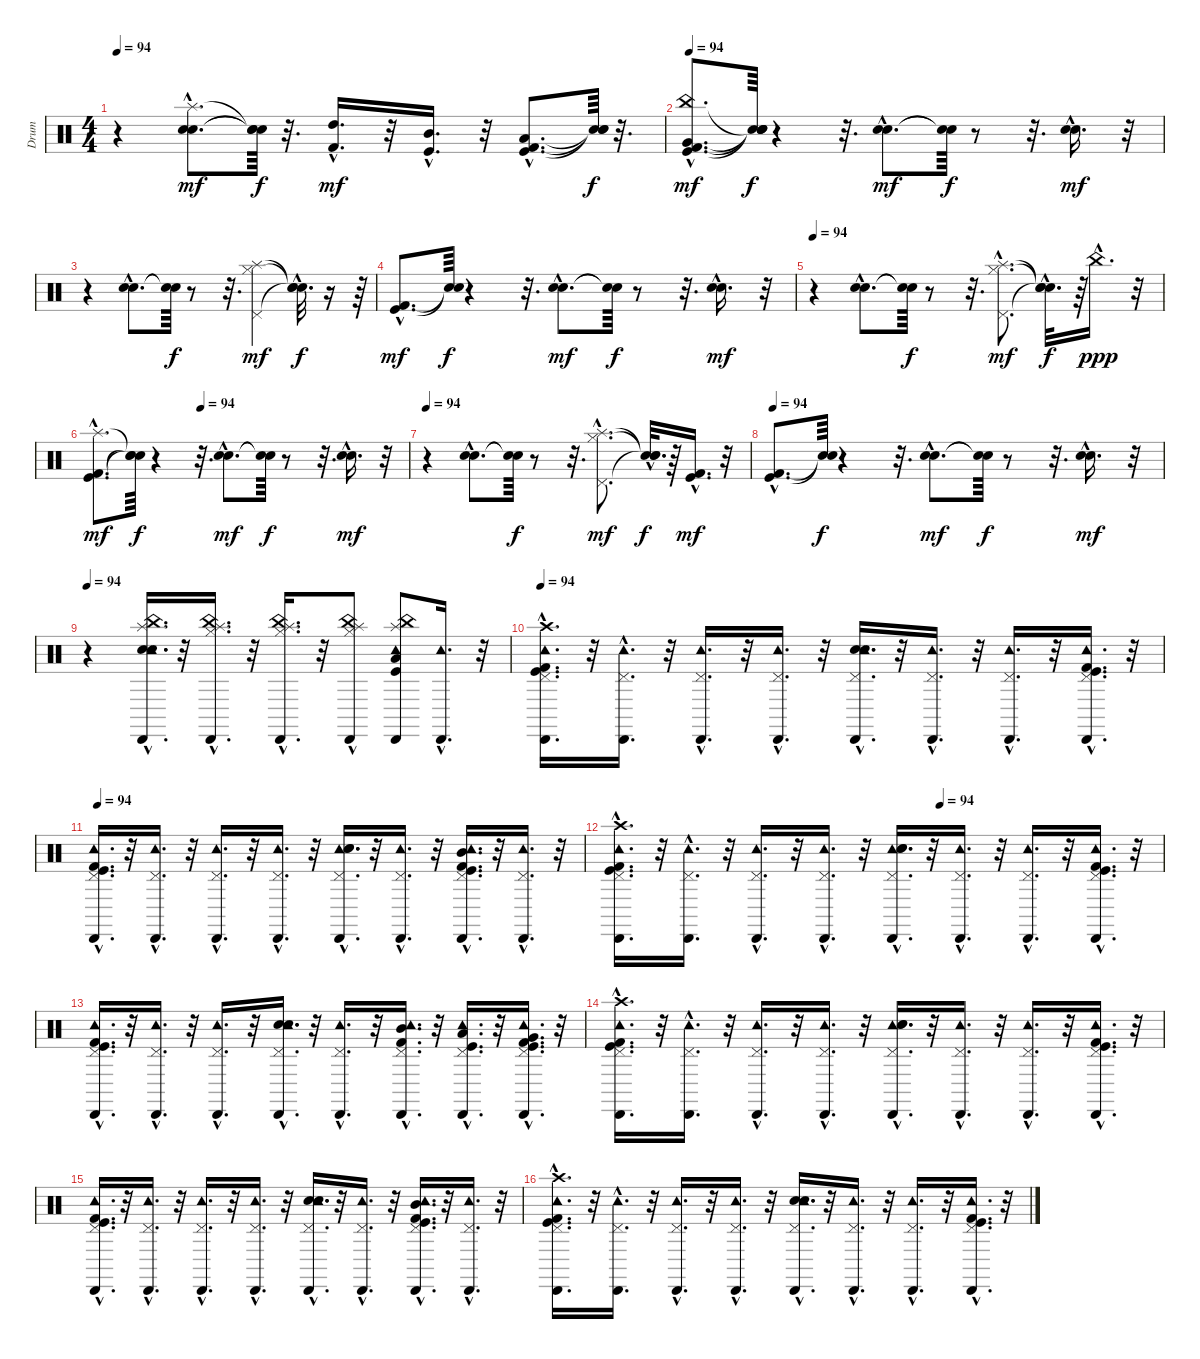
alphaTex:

\track ("Drum" "Drum") {instrument percussion}
\staff {score}
\articulation defaults
\ts (4 4)
\tempo 94
\clef neutral
\ks c
r.4{dy mf} ("Electric Snare (hit)"{hac} "Snare (hit) 2"{hac} "Splash (hit)"{hac}).8{d} ("Snare (hit)"{t} "Snare (hit)"{t} "Snare (hit)"{t}).64{dy f} r.32{d} ("High Tom (hit)"{hac} "Kick (hit) 2"{hac}).16{d dy mf} r.32 ("Mid Tom (hit)"{hac} "Kick (hit)"{hac}).16{d} r.32 ("Low Tom (hit)"{hac} "Kick (hit)"{hac} "Kick (hit) 2"{hac}).8{d} ("Snare (hit)"{t} "Snare (hit)"{t} "Snare (hit)"{t}).64{dy f} r.32{d} |
\tempo 94
("China (hit)"{hac} "Kick (hit) 2"{hac} "Very Low Tom (hit)"{hac} "Kick (hit)"{hac}).8{d dy mf} ("Snare (hit)"{t} "Snare (hit)"{t} "Snare (hit)"{t} "Snare (hit)"{t}).64{dy f} r.4 r.32{d} ("Electric Snare (hit)"{hac} "Snare (hit) 2"{hac}).8{d dy mf} ("Snare (hit)"{t} "Snare (hit)"{t}).64{dy f} r.8 r.32{d} ("Electric Snare (hit)"{hac} "Snare (hit) 2"{hac}).16{d dy mf} r.32 |
r.4 ("Electric Snare (hit)"{hac} "Snare (hit) 2"{hac}).8{d} ("Snare (hit)"{t} "Snare (hit)"{t}).64{dy f} r.8 r.32{d} ("Pedal Hi-Hat (hit)" "Splash (hit)" "Hi-Hat (closed)").4{dy mf} ("Snare (hit)"{hac t} "Snare (hit)"{hac t} "Snare (hit)"{hac t}).32{d dy f} r.16 r.64 |
("Kick (hit)"{hac} "Kick (hit) 2"{hac}).8{d dy mf} ("Snare (hit)"{t} "Snare (hit)"{t}).64{dy f} r.4 r.32{d} ("Electric Snare (hit)"{hac} "Snare (hit) 2"{hac}).8{d dy mf} ("Snare (hit)"{t} "Snare (hit)"{t}).64{dy f} r.8 r.32{d} ("Electric Snare (hit)"{hac} "Snare (hit) 2"{hac}).16{d dy mf} r.32 |
\tempo 94
r.4 ("Electric Snare (hit)"{hac} "Snare (hit) 2"{hac}).8{d} ("Snare (hit)"{t} "Snare (hit)"{t}).64{dy f} r.8 r.32{d} ("Pedal Hi-Hat (hit)"{hac} "Hi-Hat (closed)"{hac} "Splash (hit)"{hac}).8{d dy mf} ("Snare (hit)"{hac t} "Snare (hit)"{hac t} "Snare (hit)"{hac t}).32{d dy f} r.64 "China (hit)"{hac}.16{d dy ppp} r.32 |
\tempo (94 0.34375)
("Kick (hit) 2"{hac} "Splash (hit)"{hac} "Kick (hit)"{hac}).8{d dy mf} ("Snare (hit)"{t} "Snare (hit)"{t} "Snare (hit)"{t}).64{dy f} r.4 r.32{d} ("Electric Snare (hit)"{hac} "Snare (hit) 2"{hac}).8{d dy mf} ("Snare (hit)"{t} "Snare (hit)"{t}).64{dy f} r.8 r.32{d} ("Electric Snare (hit)"{hac} "Snare (hit) 2"{hac}).16{d dy mf} r.32 |
\tempo 94
r.4 ("Electric Snare (hit)"{hac} "Snare (hit) 2"{hac}).8{d} ("Snare (hit)"{t} "Snare (hit)"{t}).64{dy f} r.8 r.32{d} ("Pedal Hi-Hat (hit)"{hac} "Hi-Hat (closed)"{hac} "Splash (hit)"{hac}).8{d dy mf} ("Snare (hit)"{hac t} "Snare (hit)"{hac t} "Snare (hit)"{hac t}).32{d dy f} r.64 ("Kick (hit) 2"{hac} "Kick (hit)"{hac}).16{d dy mf} r.32 |
\tempo 94
("Kick (hit) 2"{hac} "Kick (hit)"{hac}).8{d} ("Snare (hit)"{t} "Snare (hit)"{t}).64{dy f} r.4 r.32{d} ("Electric Snare (hit)"{hac} "Snare (hit) 2"{hac}).8{d dy mf} ("Snare (hit)"{t} "Snare (hit)"{t}).64{dy f} r.8 r.32{d} ("Electric Snare (hit)"{hac} "Snare (hit) 2"{hac}).16{d dy mf} r.32 |
\tempo 94
r.4 ("Cabasa (hit)"{hac} "Electric Snare (hit)"{hac} "China (hit)"{hac} "Splash (hit)"{hac} "Tambourine (hit)"{hac} "Snare (hit) 2"{hac}).16{d} r.32 ("Cabasa (hit)"{hac} "China (hit)"{hac} "Splash (hit)"{hac} "Hi-Hat (closed)"{hac}).16{d} r.32 ("Cabasa (hit)"{hac} "China (hit)"{hac} "Splash (hit)"{hac} "Hi-Hat (closed)"{hac}).16{d} r.32 ("Cabasa (hit)"{hac} "China (hit)"{hac} "Splash (hit)"{hac} "Hi-Hat (closed)").8 ("Cabasa (hit)" "Tambourine (hit)" "Low Tom (hit)" "Kick (hit)" "China (hit)" "Splash (hit)").8 ("Cabasa (hit)"{hac} "Tambourine (hit)"{hac}).16{d} r.32 |
\tempo 94
("Cabasa (hit)"{hac} "Kick (hit) 2"{hac} "Pedal Hi-Hat (hit)"{hac} "Crash high (hit)"{hac} "Kick (hit)"{hac} "Tambourine (hit)"{hac}).16{d} r.32 ("Cabasa (hit)"{hac} "Pedal Hi-Hat (hit)"{hac} "Tambourine (hit)"{hac}).16{d} r.32 ("Cabasa (hit)"{hac} "Pedal Hi-Hat (hit)"{hac} "Tambourine (hit)"{hac}).16{d} r.32 ("Cabasa (hit)"{hac} "Pedal Hi-Hat (hit)"{hac} "Tambourine (hit)"{hac}).16{d} r.32 ("Cabasa (hit)"{hac} "Electric Snare (hit)"{hac} "Pedal Hi-Hat (hit)"{hac} "Snare (hit) 2"{hac} "Tambourine (hit)"{hac}).16{d} r.32 ("Cabasa (hit)"{hac} "Pedal Hi-Hat (hit)"{hac} "Tambourine (hit)"{hac}).16{d} r.32 ("Cabasa (hit)"{hac} "Pedal Hi-Hat (hit)"{hac} "Tambourine (hit)"{hac}).16{d} r.32 ("Cabasa (hit)"{hac} "Kick (hit) 2"{hac} "Pedal Hi-Hat (hit)"{hac} "Kick (hit)"{hac} "Tambourine (hit)"{hac}).16{d} r.32 |
\tempo 94
("Tambourine (hit)"{hac} "Kick (hit)"{hac} "Pedal Hi-Hat (hit)"{hac} "Kick (hit) 2"{hac} "Cabasa (hit)"{hac}).16{d} r.32 ("Tambourine (hit)"{hac} "Pedal Hi-Hat (hit)"{hac} "Cabasa (hit)"{hac}).16{d} r.32 ("Tambourine (hit)"{hac} "Pedal Hi-Hat (hit)"{hac} "Cabasa (hit)"{hac}).16{d} r.32 ("Tambourine (hit)"{hac} "Pedal Hi-Hat (hit)"{hac} "Cabasa (hit)"{hac}).16{d} r.32 ("Tambourine (hit)"{hac} "Snare (hit) 2"{hac} "Pedal Hi-Hat (hit)"{hac} "Electric Snare (hit)"{hac} "Cabasa (hit)"{hac}).16{d} r.32 ("Tambourine (hit)"{hac} "Pedal Hi-Hat (hit)"{hac} "Cabasa (hit)"{hac}).16{d} r.32 ("Kick (hit) 2"{hac} "Kick (hit)"{hac} "Mid Tom (hit)"{hac} "Tambourine (hit)"{hac} "Pedal Hi-Hat (hit)"{hac} "Cabasa (hit)"{hac}).16{d} r.32 ("Tambourine (hit)"{hac} "Pedal Hi-Hat (hit)"{hac} "Cabasa (hit)"{hac}).16{d} r.32 |
\tempo (94 0.59375)
("Tambourine (hit)"{hac} "Kick (hit)"{hac} "Crash high (hit)"{hac} "Pedal Hi-Hat (hit)"{hac} "Kick (hit) 2"{hac} "Cabasa (hit)"{hac}).16{d} r.32 ("Tambourine (hit)"{hac} "Pedal Hi-Hat (hit)"{hac} "Cabasa (hit)"{hac}).16{d} r.32 ("Tambourine (hit)"{hac} "Pedal Hi-Hat (hit)"{hac} "Cabasa (hit)"{hac}).16{d} r.32 ("Tambourine (hit)"{hac} "Pedal Hi-Hat (hit)"{hac} "Cabasa (hit)"{hac}).16{d} r.32 ("Tambourine (hit)"{hac} "Snare (hit) 2"{hac} "Pedal Hi-Hat (hit)"{hac} "Electric Snare (hit)"{hac} "Cabasa (hit)"{hac}).16{d} r.32 ("Tambourine (hit)"{hac} "Pedal Hi-Hat (hit)"{hac} "Cabasa (hit)"{hac}).16{d} r.32 ("Tambourine (hit)"{hac} "Pedal Hi-Hat (hit)"{hac} "Cabasa (hit)"{hac}).16{d} r.32 ("Tambourine (hit)"{hac} "Kick (hit)"{hac} "Pedal Hi-Hat (hit)"{hac} "Kick (hit) 2"{hac} "Cabasa (hit)"{hac}).16{d} r.32 |
("Cabasa (hit)"{hac} "Kick (hit) 2"{hac} "Pedal Hi-Hat (hit)"{hac} "Kick (hit)"{hac} "Tambourine (hit)"{hac}).16{d} r.32 ("Cabasa (hit)"{hac} "Pedal Hi-Hat (hit)"{hac} "Tambourine (hit)"{hac}).16{d} r.32 ("Cabasa (hit)"{hac} "Pedal Hi-Hat (hit)"{hac} "Tambourine (hit)"{hac}).16{d} r.32 ("Electric Snare (hit)"{hac} "Snare (hit) 2"{hac} "Cabasa (hit)"{hac} "Pedal Hi-Hat (hit)"{hac} "Tambourine (hit)"{hac}).16{d} r.32 ("Cabasa (hit)"{hac} "Pedal Hi-Hat (hit)"{hac} "Tambourine (hit)"{hac}).16{d} r.32 ("Kick (hit) 2"{hac} "Mid Tom (hit)"{hac} "Cabasa (hit)"{hac} "Pedal Hi-Hat (hit)"{hac} "Tambourine (hit)"{hac}).16{d} r.32 ("Kick (hit)"{hac} "Low Tom (hit)"{hac} "Cabasa (hit)"{hac} "Pedal Hi-Hat (hit)"{hac} "Tambourine (hit)"{hac}).16{d} r.32 ("Very Low Tom (hit)"{hac} "Cabasa (hit)"{hac} "Kick (hit) 2"{hac} "Pedal Hi-Hat (hit)"{hac} "Kick (hit)"{hac} "Tambourine (hit)"{hac}).16{d} r.32 |
("Tambourine (hit)"{hac} "Kick (hit)"{hac} "Crash high (hit)"{hac} "Pedal Hi-Hat (hit)"{hac} "Kick (hit) 2"{hac} "Cabasa (hit)"{hac}).16{d} r.32 ("Tambourine (hit)"{hac} "Pedal Hi-Hat (hit)"{hac} "Cabasa (hit)"{hac}).16{d} r.32 ("Tambourine (hit)"{hac} "Pedal Hi-Hat (hit)"{hac} "Cabasa (hit)"{hac}).16{d} r.32 ("Tambourine (hit)"{hac} "Pedal Hi-Hat (hit)"{hac} "Cabasa (hit)"{hac}).16{d} r.32 ("Tambourine (hit)"{hac} "Snare (hit) 2"{hac} "Pedal Hi-Hat (hit)"{hac} "Electric Snare (hit)"{hac} "Cabasa (hit)"{hac}).16{d} r.32 ("Tambourine (hit)"{hac} "Pedal Hi-Hat (hit)"{hac} "Cabasa (hit)"{hac}).16{d} r.32 ("Tambourine (hit)"{hac} "Pedal Hi-Hat (hit)"{hac} "Cabasa (hit)"{hac}).16{d} r.32 ("Tambourine (hit)"{hac} "Kick (hit)"{hac} "Pedal Hi-Hat (hit)"{hac} "Kick (hit) 2"{hac} "Cabasa (hit)"{hac}).16{d} r.32 |
("Cabasa (hit)"{hac} "Kick (hit) 2"{hac} "Pedal Hi-Hat (hit)"{hac} "Kick (hit)"{hac} "Tambourine (hit)"{hac}).16{d} r.32 ("Cabasa (hit)"{hac} "Pedal Hi-Hat (hit)"{hac} "Tambourine (hit)"{hac}).16{d} r.32 ("Cabasa (hit)"{hac} "Pedal Hi-Hat (hit)"{hac} "Tambourine (hit)"{hac}).16{d} r.32 ("Cabasa (hit)"{hac} "Pedal Hi-Hat (hit)"{hac} "Tambourine (hit)"{hac}).16{d} r.32 ("Cabasa (hit)"{hac} "Electric Snare (hit)"{hac} "Pedal Hi-Hat (hit)"{hac} "Snare (hit) 2"{hac} "Tambourine (hit)"{hac}).16{d} r.32 ("Cabasa (hit)"{hac} "Pedal Hi-Hat (hit)"{hac} "Tambourine (hit)"{hac}).16{d} r.32 ("Cabasa (hit)"{hac} "Pedal Hi-Hat (hit)"{hac} "Tambourine (hit)"{hac} "Mid Tom (hit)"{hac} "Kick (hit)"{hac} "Kick (hit) 2"{hac}).16{d} r.32 ("Cabasa (hit)"{hac} "Pedal Hi-Hat (hit)"{hac} "Tambourine (hit)"{hac}).16{d} r.32 |
("Cabasa (hit)"{hac} "Kick (hit) 2"{hac} "Pedal Hi-Hat (hit)"{hac} "Crash high (hit)"{hac} "Kick (hit)"{hac} "Tambourine (hit)"{hac}).16{d} r.32 ("Cabasa (hit)"{hac} "Pedal Hi-Hat (hit)"{hac} "Tambourine (hit)"{hac}).16{d} r.32 ("Cabasa (hit)"{hac} "Pedal Hi-Hat (hit)"{hac} "Tambourine (hit)"{hac}).16{d} r.32 ("Cabasa (hit)"{hac} "Pedal Hi-Hat (hit)"{hac} "Tambourine (hit)"{hac}).16{d} r.32 ("Cabasa (hit)"{hac} "Electric Snare (hit)"{hac} "Pedal Hi-Hat (hit)"{hac} "Snare (hit) 2"{hac} "Tambourine (hit)"{hac}).16{d} r.32 ("Cabasa (hit)"{hac} "Pedal Hi-Hat (hit)"{hac} "Tambourine (hit)"{hac}).16{d} r.32 ("Cabasa (hit)"{hac} "Pedal Hi-Hat (hit)"{hac} "Tambourine (hit)"{hac}).16{d} r.32 ("Cabasa (hit)"{hac} "Kick (hit) 2"{hac} "Pedal Hi-Hat (hit)"{hac} "Kick (hit)"{hac} "Tambourine (hit)"{hac}).16{d} r.32
